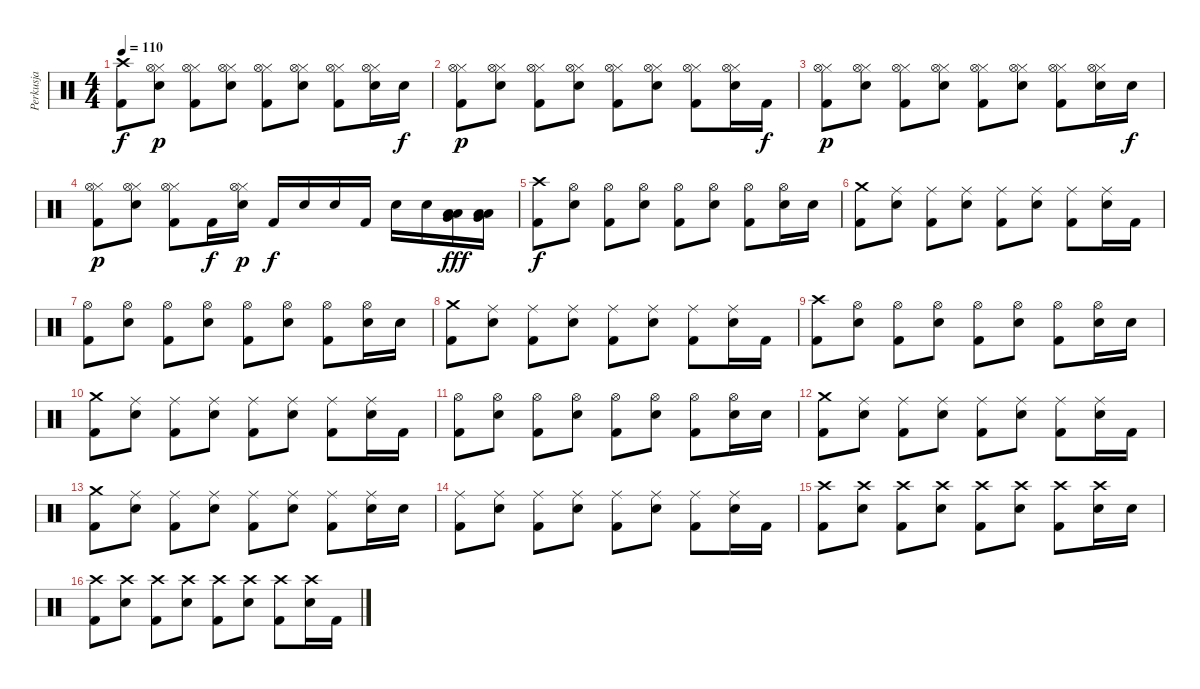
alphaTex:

\track ("Perkusja" "Perkusja") {instrument percussion}
\staff {score}
\articulation defaults
\ts (4 4)
\tempo 110
\clef neutral
\ks c
("Kick (hit) 2" "Crash high (hit)").8{dy f} ("Electric Snare (hit)" "Hi-Hat (closed)" "Hi-Hat (open)").8{dy p} ("Kick (hit) 2" "Hi-Hat (closed)" "Hi-Hat (open)").8 ("Electric Snare (hit)" "Hi-Hat (closed)" "Hi-Hat (open)").8 ("Kick (hit) 2" "Hi-Hat (closed)" "Hi-Hat (open)").8 ("Electric Snare (hit)" "Hi-Hat (closed)" "Hi-Hat (open)").8 ("Kick (hit) 2" "Hi-Hat (closed)" "Hi-Hat (open)").8 ("Electric Snare (hit)" "Hi-Hat (closed)" "Hi-Hat (open)").16 "Electric Snare (hit)".16{dy f} |
("Kick (hit) 2" "Hi-Hat (closed)" "Hi-Hat (open)").8{dy p} ("Electric Snare (hit)" "Hi-Hat (closed)" "Hi-Hat (open)").8 ("Kick (hit) 2" "Hi-Hat (closed)" "Hi-Hat (open)").8 ("Electric Snare (hit)" "Hi-Hat (closed)" "Hi-Hat (open)").8 ("Kick (hit) 2" "Hi-Hat (closed)" "Hi-Hat (open)").8 ("Electric Snare (hit)" "Hi-Hat (closed)" "Hi-Hat (open)").8 ("Kick (hit) 2" "Hi-Hat (closed)" "Hi-Hat (open)").8 ("Electric Snare (hit)" "Hi-Hat (closed)" "Hi-Hat (open)").16 "Kick (hit) 2".16{dy f} |
("Kick (hit) 2" "Hi-Hat (closed)" "Hi-Hat (open)").8{dy p} ("Electric Snare (hit)" "Hi-Hat (closed)" "Hi-Hat (open)").8 ("Kick (hit) 2" "Hi-Hat (closed)" "Hi-Hat (open)").8 ("Electric Snare (hit)" "Hi-Hat (closed)" "Hi-Hat (open)").8 ("Kick (hit) 2" "Hi-Hat (closed)" "Hi-Hat (open)").8 ("Electric Snare (hit)" "Hi-Hat (closed)" "Hi-Hat (open)").8 ("Kick (hit) 2" "Hi-Hat (closed)" "Hi-Hat (open)").8 ("Electric Snare (hit)" "Hi-Hat (closed)" "Hi-Hat (open)").16 "Electric Snare (hit)".16{dy f} |
("Kick (hit) 2" "Hi-Hat (closed)" "Hi-Hat (open)").8{dy p} ("Electric Snare (hit)" "Hi-Hat (closed)" "Hi-Hat (open)").8 ("Kick (hit) 2" "Hi-Hat (closed)" "Hi-Hat (open)").8 "Kick (hit) 2".16{dy f} ("Electric Snare (hit)" "Hi-Hat (closed)" "Hi-Hat (open)").16{dy p} "Kick (hit) 2".16{dy f} "Electric Snare (hit)".16 "Electric Snare (hit)".16 "Kick (hit) 2".16 "Electric Snare (hit)".16 "Electric Snare (hit)".16 ("Low Floor Tom (hit)" "Very Low Tom (hit)" "Low Tom (hit)").16{dy fff} ("Low Floor Tom (hit)" "Very Low Tom (hit)" "Low Tom (hit)").16 |
("Kick (hit) 2" "Crash high (hit)").8{dy f} ("Electric Snare (hit)" "Hi-Hat (open)").8 ("Kick (hit) 2" "Hi-Hat (open)").8 ("Electric Snare (hit)" "Hi-Hat (open)").8 ("Kick (hit) 2" "Hi-Hat (open)").8 ("Electric Snare (hit)" "Hi-Hat (open)").8 ("Kick (hit) 2" "Hi-Hat (open)").8 ("Electric Snare (hit)" "Hi-Hat (open)").16 "Electric Snare (hit)".16 |
("Kick (hit) 2" "Crash medium (hit)").8 ("Electric Snare (hit)" "Ride (middle)").8 ("Kick (hit) 2" "Ride (middle)").8 ("Electric Snare (hit)" "Ride (middle)").8 ("Kick (hit) 2" "Ride (middle)").8 ("Electric Snare (hit)" "Ride (middle)").8 ("Kick (hit) 2" "Ride (middle)").8 ("Electric Snare (hit)" "Ride (middle)").16 "Kick (hit) 2".16 |
("Kick (hit) 2" "Hi-Hat (open)").8 ("Electric Snare (hit)" "Hi-Hat (open)").8 ("Kick (hit) 2" "Hi-Hat (open)").8 ("Electric Snare (hit)" "Hi-Hat (open)").8 ("Kick (hit) 2" "Hi-Hat (open)").8 ("Electric Snare (hit)" "Hi-Hat (open)").8 ("Kick (hit) 2" "Hi-Hat (open)").8 ("Electric Snare (hit)" "Hi-Hat (open)").16 "Electric Snare (hit)".16 |
("Kick (hit) 2" "Crash medium (hit)").8 ("Electric Snare (hit)" "Ride (middle)").8 ("Kick (hit) 2" "Ride (middle)").8 ("Electric Snare (hit)" "Ride (middle)").8 ("Kick (hit) 2" "Ride (middle)").8 ("Electric Snare (hit)" "Ride (middle)").8 ("Kick (hit) 2" "Ride (middle)").8 ("Electric Snare (hit)" "Ride (middle)").16 "Kick (hit) 2".16 |
("Kick (hit) 2" "Crash high (hit)").8 ("Electric Snare (hit)" "Hi-Hat (open)").8 ("Kick (hit) 2" "Hi-Hat (open)").8 ("Electric Snare (hit)" "Hi-Hat (open)").8 ("Kick (hit) 2" "Hi-Hat (open)").8 ("Electric Snare (hit)" "Hi-Hat (open)").8 ("Kick (hit) 2" "Hi-Hat (open)").8 ("Electric Snare (hit)" "Hi-Hat (open)").16 "Electric Snare (hit)".16 |
("Kick (hit) 2" "Crash medium (hit)").8 ("Electric Snare (hit)" "Ride (middle)").8 ("Kick (hit) 2" "Ride (middle)").8 ("Electric Snare (hit)" "Ride (middle)").8 ("Kick (hit) 2" "Ride (middle)").8 ("Electric Snare (hit)" "Ride (middle)").8 ("Kick (hit) 2" "Ride (middle)").8 ("Electric Snare (hit)" "Ride (middle)").16 "Kick (hit) 2".16 |
("Kick (hit) 2" "Hi-Hat (open)").8 ("Electric Snare (hit)" "Hi-Hat (open)").8 ("Kick (hit) 2" "Hi-Hat (open)").8 ("Electric Snare (hit)" "Hi-Hat (open)").8 ("Kick (hit) 2" "Hi-Hat (open)").8 ("Electric Snare (hit)" "Hi-Hat (open)").8 ("Kick (hit) 2" "Hi-Hat (open)").8 ("Electric Snare (hit)" "Hi-Hat (open)").16 "Electric Snare (hit)".16 |
("Kick (hit) 2" "Crash medium (hit)").8 ("Electric Snare (hit)" "Ride (middle)").8 ("Kick (hit) 2" "Ride (middle)").8 ("Electric Snare (hit)" "Ride (middle)").8 ("Kick (hit) 2" "Ride (middle)").8 ("Electric Snare (hit)" "Ride (middle)").8 ("Kick (hit) 2" "Ride (middle)").8 ("Electric Snare (hit)" "Ride (middle)").16 "Kick (hit) 2".16 |
("Kick (hit) 2" "Crash medium (hit)").8 ("Electric Snare (hit)" "Ride (middle)").8 ("Kick (hit) 2" "Ride (middle)").8 ("Electric Snare (hit)" "Ride (middle)").8 ("Kick (hit) 2" "Ride (middle)").8 ("Electric Snare (hit)" "Ride (middle)").8 ("Kick (hit) 2" "Ride (middle)").8 ("Electric Snare (hit)" "Ride (middle)").16 "Electric Snare (hit)".16 |
("Kick (hit) 2" "Ride (middle)").8 ("Electric Snare (hit)" "Ride (middle)").8 ("Kick (hit) 2" "Ride (middle)").8 ("Electric Snare (hit)" "Ride (middle)").8 ("Kick (hit) 2" "Ride (middle)").8 ("Electric Snare (hit)" "Ride (middle)").8 ("Kick (hit) 2" "Ride (middle)").8 ("Electric Snare (hit)" "Ride (middle)").16 "Kick (hit) 2".16 |
("Kick (hit) 2" "Crash high (hit)").8 ("Electric Snare (hit)" "Crash high (hit)").8 ("Kick (hit) 2" "Crash high (hit)").8 ("Electric Snare (hit)" "Crash high (hit)").8 ("Kick (hit) 2" "Crash high (hit)").8 ("Electric Snare (hit)" "Crash high (hit)").8 ("Kick (hit) 2" "Crash high (hit)").8 ("Electric Snare (hit)" "Crash high (hit)").16 "Electric Snare (hit)".16 |
("Kick (hit) 2" "Crash high (hit)").8 ("Electric Snare (hit)" "Crash high (hit)").8 ("Kick (hit) 2" "Crash high (hit)").8 ("Electric Snare (hit)" "Crash high (hit)").8 ("Kick (hit) 2" "Crash high (hit)").8 ("Electric Snare (hit)" "Crash high (hit)").8 ("Kick (hit) 2" "Crash high (hit)").8 ("Electric Snare (hit)" "Crash high (hit)").16 "Kick (hit) 2".16
